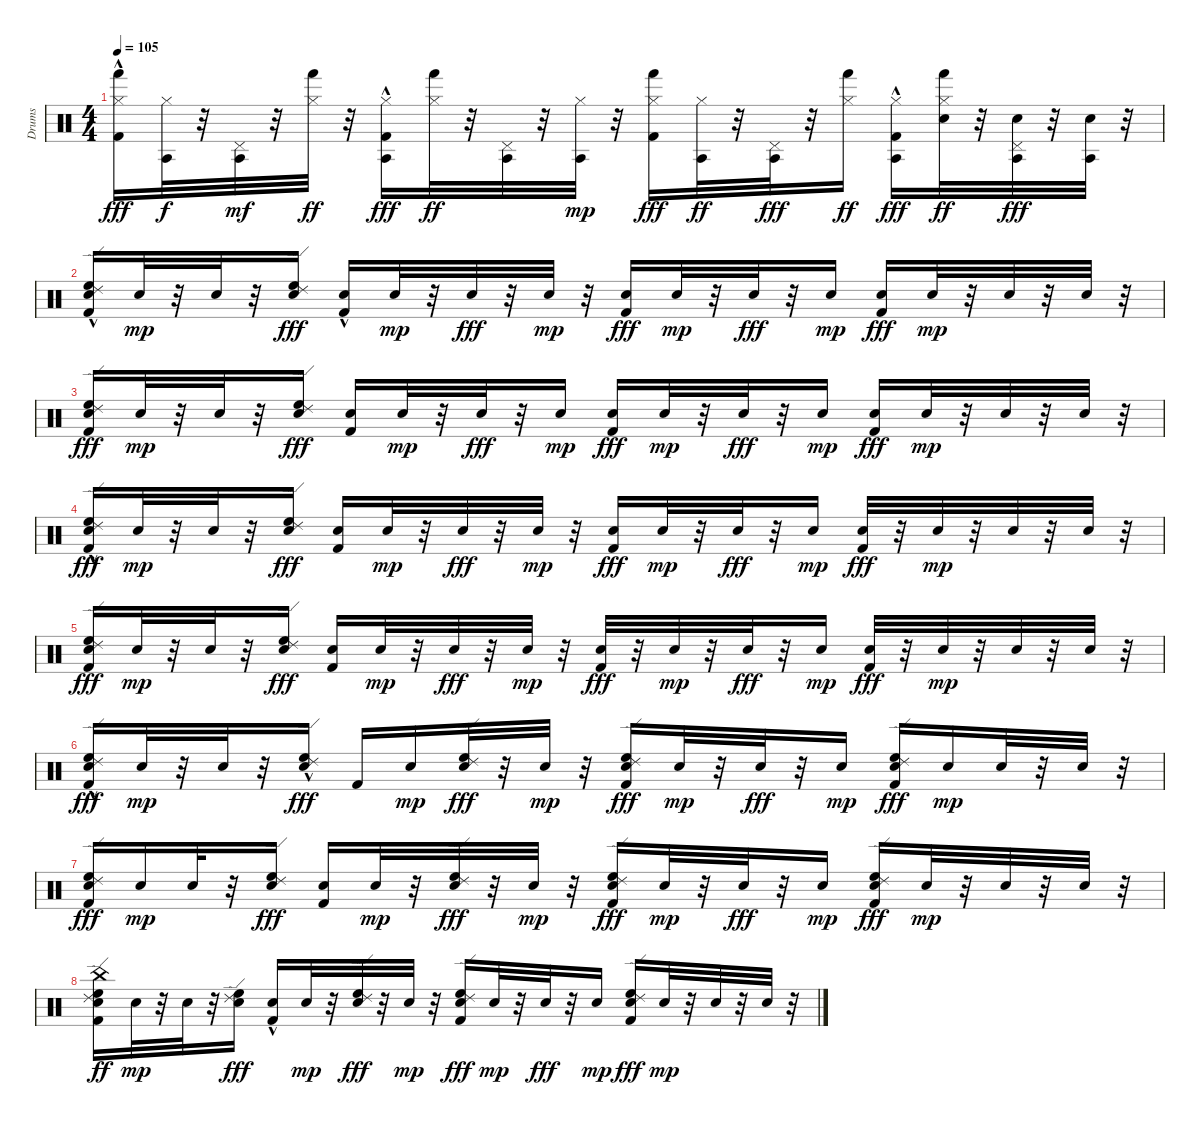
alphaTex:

\track ("Drums" "Drums") {instrument percussion}
\staff {score}
\articulation defaults
\ts (4 4)
\tempo 105
\clef neutral
\ks c
("Hand (hit)" "Hi-Hat (closed)" "Kick (hit) 2"{hac}).16{dy fff} ("Agogo tow (hit)" "Hi-Hat (closed)").32{dy f} r.32 ("Pedal Hi-Hat (hit)" "Agogo tow (hit)").32{dy mf} r.32 ("Hi-Hat (closed)" "Hand (hit)").32{dy ff} r.32 ("Agogo tow (hit)" "Hi-Hat (closed)" "Kick (hit) 2"{hac}).16{dy fff} ("Hi-Hat (closed)" "Hand (hit)").32{dy ff} r.32 ("Agogo tow (hit)" "Pedal Hi-Hat (hit)").32 r.32 ("Agogo tow (hit)" "Hi-Hat (closed)").32{dy mp} r.32 ("Hand (hit)" "Hi-Hat (closed)" "Kick (hit) 2").16{dy fff} ("Agogo tow (hit)" "Hi-Hat (closed)").32{dy ff} r.32 ("Pedal Hi-Hat (hit)" "Agogo tow (hit)").32{dy fff} r.32 ("Hand (hit)" "Hi-Hat (closed)").16{dy ff} ("Agogo tow (hit)" "Hi-Hat (closed)" "Kick (hit) 2"{hac}).16{dy fff} ("Hand (hit)" "Snare (hit) 2" "Hi-Hat (closed)").32{dy ff} r.32 ("Agogo tow (hit)" "Snare (hit) 2" "Pedal Hi-Hat (hit)").32{dy fff} r.32 ("Agogo tow (hit)" "Snare (hit) 2").32 r.32 |
("High Floor Tom (hit)"{hac} "Ride (edge) 2"{hac} "Snare (hit) 2" "Kick (hit) 2").16 "Snare (hit) 2".32{dy mp} r.32 "Snare (hit) 2".32 r.32 ("Ride (edge) 2" "High Floor Tom (hit)" "Snare (hit) 2").16{dy fff} ("Snare (hit) 2" "Kick (hit) 2"{hac}).16 "Snare (hit) 2".32{dy mp} r.32 "Snare (hit) 2".32{dy fff} r.32 "Snare (hit) 2".32{dy mp} r.32 ("Snare (hit) 2" "Kick (hit) 2").16{dy fff} "Snare (hit) 2".32{dy mp} r.32 "Snare (hit) 2".32{dy fff} r.32 "Snare (hit) 2".16{dy mp} ("Snare (hit) 2" "Kick (hit) 2").16{dy fff} "Snare (hit) 2".32{dy mp} r.32 "Snare (hit) 2".32 r.32 "Snare (hit) 2".32 r.32 |
("High Floor Tom (hit)" "Ride (edge) 2" "Snare (hit) 2" "Kick (hit) 2").16{dy fff} "Snare (hit) 2".32{dy mp} r.32 "Snare (hit) 2".32 r.32 ("Ride (edge) 2" "High Floor Tom (hit)" "Snare (hit) 2").16{dy fff} ("Snare (hit) 2" "Kick (hit) 2").16 "Snare (hit) 2".32{dy mp} r.32 "Snare (hit) 2".32{dy fff} r.32 "Snare (hit) 2".16{dy mp} ("Snare (hit) 2" "Kick (hit) 2").16{dy fff} "Snare (hit) 2".32{dy mp} r.32 "Snare (hit) 2".32{dy fff} r.32 "Snare (hit) 2".16{dy mp} ("Snare (hit) 2" "Kick (hit) 2").16{dy fff} "Snare (hit) 2".32{dy mp} r.32 "Snare (hit) 2".32 r.32 "Snare (hit) 2".32 r.32 |
("High Floor Tom (hit)" "Ride (edge) 2"{hac} "Kick (hit) 2" "Snare (hit) 2").16{dy fff} "Snare (hit) 2".32{dy mp} r.32 "Snare (hit) 2".32 r.32 ("High Floor Tom (hit)" "Ride (edge) 2" "Snare (hit) 2").16{dy fff} ("Snare (hit) 2" "Kick (hit) 2").16 "Snare (hit) 2".32{dy mp} r.32 "Snare (hit) 2".32{dy fff} r.32 "Snare (hit) 2".32{dy mp} r.32 ("Snare (hit) 2" "Kick (hit) 2").16{dy fff} "Snare (hit) 2".32{dy mp} r.32 "Snare (hit) 2".32{dy fff} r.32 "Snare (hit) 2".16{dy mp} ("Kick (hit) 2" "Snare (hit) 2").32{dy fff} r.32 "Snare (hit) 2".32{dy mp} r.32 "Snare (hit) 2".32 r.32 "Snare (hit) 2".32 r.32 |
("High Floor Tom (hit)" "Ride (edge) 2" "Kick (hit) 2" "Snare (hit) 2").16{dy fff} "Snare (hit) 2".32{dy mp} r.32 "Snare (hit) 2".32 r.32 ("High Floor Tom (hit)" "Ride (edge) 2" "Snare (hit) 2").16{dy fff} ("Snare (hit) 2" "Kick (hit) 2").16 "Snare (hit) 2".32{dy mp} r.32 "Snare (hit) 2".32{dy fff} r.32 "Snare (hit) 2".32{dy mp} r.32 ("Snare (hit) 2" "Kick (hit) 2").32{dy fff} r.32 "Snare (hit) 2".32{dy mp} r.32 "Snare (hit) 2".32{dy fff} r.32 "Snare (hit) 2".16{dy mp} ("Kick (hit) 2" "Snare (hit) 2").32{dy fff} r.32 "Snare (hit) 2".32{dy mp} r.32 "Snare (hit) 2".32 r.32 "Snare (hit) 2".32 r.32 |
("Ride (edge) 2"{hac} "High Floor Tom (hit)"{hac} "Snare (hit) 2" "Kick (hit) 2").16{dy fff} "Snare (hit) 2".32{dy mp} r.32 "Snare (hit) 2".32 r.32 ("High Floor Tom (hit)" "Ride (edge) 2" "Snare (hit) 2"{hac}).16{dy fff} "Kick (hit) 2".16 "Snare (hit) 2".16{dy mp} ("Ride (edge) 2" "High Floor Tom (hit)" "Snare (hit) 2").32{dy fff} r.32 "Snare (hit) 2".32{dy mp} r.32 ("Ride (edge) 2" "High Floor Tom (hit)" "Snare (hit) 2" "Kick (hit) 2").16{dy fff} "Snare (hit) 2".32{dy mp} r.32 "Snare (hit) 2".32{dy fff} r.32 "Snare (hit) 2".16{dy mp} ("High Floor Tom (hit)" "Ride (edge) 2" "Snare (hit) 2" "Kick (hit) 2").16{dy fff} "Snare (hit) 2".16{dy mp} "Snare (hit) 2".32 r.32 "Snare (hit) 2".32 r.32 |
("Ride (edge) 2" "High Floor Tom (hit)" "Snare (hit) 2" "Kick (hit) 2").16{dy fff} "Snare (hit) 2".16{dy mp} "Snare (hit) 2".32 r.32 ("High Floor Tom (hit)" "Ride (edge) 2" "Snare (hit) 2").16{dy fff} ("Snare (hit) 2" "Kick (hit) 2").16 "Snare (hit) 2".32{dy mp} r.32 ("High Floor Tom (hit)" "Ride (edge) 2" "Snare (hit) 2").32{dy fff} r.32 "Snare (hit) 2".32{dy mp} r.32 ("Ride (edge) 2" "High Floor Tom (hit)" "Snare (hit) 2" "Kick (hit) 2").16{dy fff} "Snare (hit) 2".32{dy mp} r.32 "Snare (hit) 2".32{dy fff} r.32 "Snare (hit) 2".16{dy mp} ("High Floor Tom (hit)" "Ride (edge) 2" "Snare (hit) 2" "Kick (hit) 2").16{dy fff} "Snare (hit) 2".32{dy mp} r.32 "Snare (hit) 2".32 r.32 "Snare (hit) 2".32 r.32 |
("Snare (hit) 2" "Kick (hit) 2" "Ride (edge) 2" "High Floor Tom (hit)" "China (hit)").16{dy ff} "Snare (hit) 2".32{dy mp} r.32 "Snare (hit) 2".32 r.32 ("Ride (edge) 2" "High Floor Tom (hit)" "Snare (hit) 2").16{dy fff} ("Snare (hit) 2" "Kick (hit) 2"{hac}).16 "Snare (hit) 2".32{dy mp} r.32 ("High Floor Tom (hit)" "Ride (edge) 2" "Snare (hit) 2").32{dy fff} r.32 "Snare (hit) 2".32{dy mp} r.32 ("Ride (edge) 2" "High Floor Tom (hit)" "Snare (hit) 2" "Kick (hit) 2").16{dy fff} "Snare (hit) 2".32{dy mp} r.32 "Snare (hit) 2".32{dy fff} r.32 "Snare (hit) 2".16{dy mp} ("High Floor Tom (hit)" "Ride (edge) 2" "Snare (hit) 2" "Kick (hit) 2").16{dy fff} "Snare (hit) 2".32{dy mp} r.32 "Snare (hit) 2".32 r.32 "Snare (hit) 2".32 r.32
